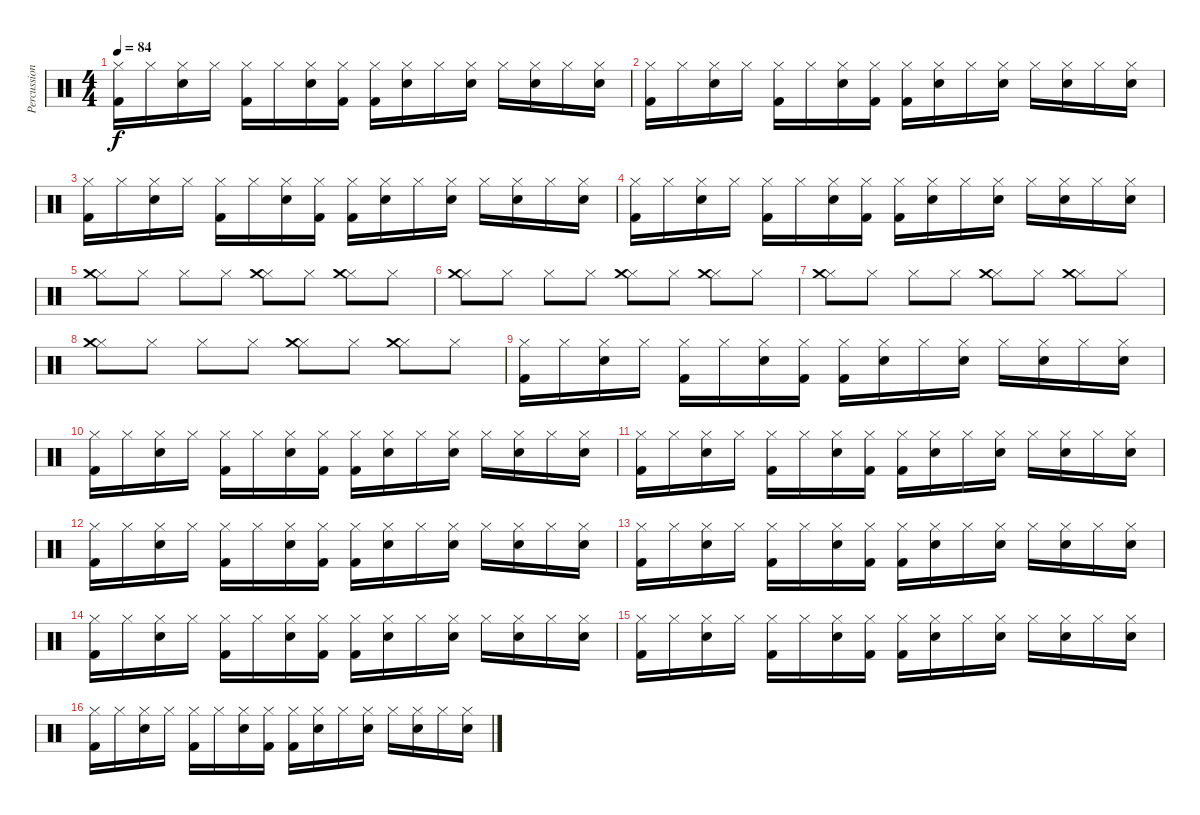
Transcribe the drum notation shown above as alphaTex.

\track ("Percussion" "Percussion") {instrument percussion}
\staff {score}
\articulation defaults
\ts (4 4)
\tempo 84
\clef neutral
\ks c
("Hi-Hat (closed)" "Kick (hit) 2").16{dy f} "Hi-Hat (closed)".16 ("Hi-Hat (closed)" "Snare (hit) 2").16 "Hi-Hat (closed)".16 ("Hi-Hat (closed)" "Kick (hit) 2").16 "Hi-Hat (closed)".16 ("Hi-Hat (closed)" "Snare (hit) 2").16 ("Hi-Hat (closed)" "Kick (hit) 2").16 ("Hi-Hat (closed)" "Kick (hit) 2").16 ("Hi-Hat (closed)" "Snare (hit) 2").16 "Hi-Hat (closed)".16 ("Hi-Hat (closed)" "Snare (hit) 2").16 "Hi-Hat (closed)".16 ("Hi-Hat (closed)" "Snare (hit) 2").16 "Hi-Hat (closed)".16 ("Hi-Hat (closed)" "Snare (hit) 2").16 |
("Hi-Hat (closed)" "Kick (hit) 2").16 "Hi-Hat (closed)".16 ("Hi-Hat (closed)" "Snare (hit) 2").16 "Hi-Hat (closed)".16 ("Hi-Hat (closed)" "Kick (hit) 2").16 "Hi-Hat (closed)".16 ("Hi-Hat (closed)" "Snare (hit) 2").16 ("Hi-Hat (closed)" "Kick (hit) 2").16 ("Hi-Hat (closed)" "Kick (hit) 2").16 ("Hi-Hat (closed)" "Snare (hit) 2").16 "Hi-Hat (closed)".16 ("Hi-Hat (closed)" "Snare (hit) 2").16 "Hi-Hat (closed)".16 ("Hi-Hat (closed)" "Snare (hit) 2").16 "Hi-Hat (closed)".16 ("Hi-Hat (closed)" "Snare (hit) 2").16 |
("Hi-Hat (closed)" "Kick (hit) 2").16 "Hi-Hat (closed)".16 ("Hi-Hat (closed)" "Snare (hit) 2").16 "Hi-Hat (closed)".16 ("Hi-Hat (closed)" "Kick (hit) 2").16 "Hi-Hat (closed)".16 ("Hi-Hat (closed)" "Snare (hit) 2").16 ("Hi-Hat (closed)" "Kick (hit) 2").16 ("Hi-Hat (closed)" "Kick (hit) 2").16 ("Hi-Hat (closed)" "Snare (hit) 2").16 "Hi-Hat (closed)".16 ("Hi-Hat (closed)" "Snare (hit) 2").16 "Hi-Hat (closed)".16 ("Hi-Hat (closed)" "Snare (hit) 2").16 "Hi-Hat (closed)".16 ("Hi-Hat (closed)" "Snare (hit) 2").16 |
("Hi-Hat (closed)" "Kick (hit) 2").16 "Hi-Hat (closed)".16 ("Hi-Hat (closed)" "Snare (hit) 2").16 "Hi-Hat (closed)".16 ("Hi-Hat (closed)" "Kick (hit) 2").16 "Hi-Hat (closed)".16 ("Hi-Hat (closed)" "Snare (hit) 2").16 ("Hi-Hat (closed)" "Kick (hit) 2").16 ("Hi-Hat (closed)" "Kick (hit) 2").16 ("Hi-Hat (closed)" "Snare (hit) 2").16 "Hi-Hat (closed)".16 ("Hi-Hat (closed)" "Snare (hit) 2").16 "Hi-Hat (closed)".16 ("Hi-Hat (closed)" "Snare (hit) 2").16 "Hi-Hat (closed)".16 ("Hi-Hat (closed)" "Snare (hit) 2").16 |
("Hi-Hat (closed)" "Crash medium (hit)").8 "Hi-Hat (closed)".8 "Hi-Hat (closed)".8 "Hi-Hat (closed)".8 ("Hi-Hat (closed)" "Crash medium (hit)").8 "Hi-Hat (closed)".8 ("Hi-Hat (closed)" "Crash medium (hit)").8 "Hi-Hat (closed)".8 |
("Hi-Hat (closed)" "Crash medium (hit)").8 "Hi-Hat (closed)".8 "Hi-Hat (closed)".8 "Hi-Hat (closed)".8 ("Hi-Hat (closed)" "Crash medium (hit)").8 "Hi-Hat (closed)".8 ("Hi-Hat (closed)" "Crash medium (hit)").8 "Hi-Hat (closed)".8 |
("Hi-Hat (closed)" "Crash medium (hit)").8 "Hi-Hat (closed)".8 "Hi-Hat (closed)".8 "Hi-Hat (closed)".8 ("Hi-Hat (closed)" "Crash medium (hit)").8 "Hi-Hat (closed)".8 ("Hi-Hat (closed)" "Crash medium (hit)").8 "Hi-Hat (closed)".8 |
("Hi-Hat (closed)" "Crash medium (hit)").8 "Hi-Hat (closed)".8 "Hi-Hat (closed)".8 "Hi-Hat (closed)".8 ("Hi-Hat (closed)" "Crash medium (hit)").8 "Hi-Hat (closed)".8 ("Hi-Hat (closed)" "Crash medium (hit)").8 "Hi-Hat (closed)".8 |
("Hi-Hat (closed)" "Kick (hit) 2").16 "Hi-Hat (closed)".16 ("Hi-Hat (closed)" "Snare (hit) 2").16 "Hi-Hat (closed)".16 ("Hi-Hat (closed)" "Kick (hit) 2").16 "Hi-Hat (closed)".16 ("Hi-Hat (closed)" "Snare (hit) 2").16 ("Hi-Hat (closed)" "Kick (hit) 2").16 ("Hi-Hat (closed)" "Kick (hit) 2").16 ("Hi-Hat (closed)" "Snare (hit) 2").16 "Hi-Hat (closed)".16 ("Hi-Hat (closed)" "Snare (hit) 2").16 "Hi-Hat (closed)".16 ("Hi-Hat (closed)" "Snare (hit) 2").16 "Hi-Hat (closed)".16 ("Hi-Hat (closed)" "Snare (hit) 2").16 |
("Hi-Hat (closed)" "Kick (hit) 2").16 "Hi-Hat (closed)".16 ("Hi-Hat (closed)" "Snare (hit) 2").16 "Hi-Hat (closed)".16 ("Hi-Hat (closed)" "Kick (hit) 2").16 "Hi-Hat (closed)".16 ("Hi-Hat (closed)" "Snare (hit) 2").16 ("Hi-Hat (closed)" "Kick (hit) 2").16 ("Hi-Hat (closed)" "Kick (hit) 2").16 ("Hi-Hat (closed)" "Snare (hit) 2").16 "Hi-Hat (closed)".16 ("Hi-Hat (closed)" "Snare (hit) 2").16 "Hi-Hat (closed)".16 ("Hi-Hat (closed)" "Snare (hit) 2").16 "Hi-Hat (closed)".16 ("Hi-Hat (closed)" "Snare (hit) 2").16 |
("Hi-Hat (closed)" "Kick (hit) 2").16 "Hi-Hat (closed)".16 ("Hi-Hat (closed)" "Snare (hit) 2").16 "Hi-Hat (closed)".16 ("Hi-Hat (closed)" "Kick (hit) 2").16 "Hi-Hat (closed)".16 ("Hi-Hat (closed)" "Snare (hit) 2").16 ("Hi-Hat (closed)" "Kick (hit) 2").16 ("Hi-Hat (closed)" "Kick (hit) 2").16 ("Hi-Hat (closed)" "Snare (hit) 2").16 "Hi-Hat (closed)".16 ("Hi-Hat (closed)" "Snare (hit) 2").16 "Hi-Hat (closed)".16 ("Hi-Hat (closed)" "Snare (hit) 2").16 "Hi-Hat (closed)".16 ("Hi-Hat (closed)" "Snare (hit) 2").16 |
("Hi-Hat (closed)" "Kick (hit) 2").16 "Hi-Hat (closed)".16 ("Hi-Hat (closed)" "Snare (hit) 2").16 "Hi-Hat (closed)".16 ("Hi-Hat (closed)" "Kick (hit) 2").16 "Hi-Hat (closed)".16 ("Hi-Hat (closed)" "Snare (hit) 2").16 ("Hi-Hat (closed)" "Kick (hit) 2").16 ("Hi-Hat (closed)" "Kick (hit) 2").16 ("Hi-Hat (closed)" "Snare (hit) 2").16 "Hi-Hat (closed)".16 ("Hi-Hat (closed)" "Snare (hit) 2").16 "Hi-Hat (closed)".16 ("Hi-Hat (closed)" "Snare (hit) 2").16 "Hi-Hat (closed)".16 ("Hi-Hat (closed)" "Snare (hit) 2").16 |
("Hi-Hat (closed)" "Kick (hit) 2").16 "Hi-Hat (closed)".16 ("Hi-Hat (closed)" "Snare (hit) 2").16 "Hi-Hat (closed)".16 ("Hi-Hat (closed)" "Kick (hit) 2").16 "Hi-Hat (closed)".16 ("Hi-Hat (closed)" "Snare (hit) 2").16 ("Hi-Hat (closed)" "Kick (hit) 2").16 ("Hi-Hat (closed)" "Kick (hit) 2").16 ("Hi-Hat (closed)" "Snare (hit) 2").16 "Hi-Hat (closed)".16 ("Hi-Hat (closed)" "Snare (hit) 2").16 "Hi-Hat (closed)".16 ("Hi-Hat (closed)" "Snare (hit) 2").16 "Hi-Hat (closed)".16 ("Hi-Hat (closed)" "Snare (hit) 2").16 |
("Hi-Hat (closed)" "Kick (hit) 2").16 "Hi-Hat (closed)".16 ("Hi-Hat (closed)" "Snare (hit) 2").16 "Hi-Hat (closed)".16 ("Hi-Hat (closed)" "Kick (hit) 2").16 "Hi-Hat (closed)".16 ("Hi-Hat (closed)" "Snare (hit) 2").16 ("Hi-Hat (closed)" "Kick (hit) 2").16 ("Hi-Hat (closed)" "Kick (hit) 2").16 ("Hi-Hat (closed)" "Snare (hit) 2").16 "Hi-Hat (closed)".16 ("Hi-Hat (closed)" "Snare (hit) 2").16 "Hi-Hat (closed)".16 ("Hi-Hat (closed)" "Snare (hit) 2").16 "Hi-Hat (closed)".16 ("Hi-Hat (closed)" "Snare (hit) 2").16 |
("Hi-Hat (closed)" "Kick (hit) 2").16 "Hi-Hat (closed)".16 ("Hi-Hat (closed)" "Snare (hit) 2").16 "Hi-Hat (closed)".16 ("Hi-Hat (closed)" "Kick (hit) 2").16 "Hi-Hat (closed)".16 ("Hi-Hat (closed)" "Snare (hit) 2").16 ("Hi-Hat (closed)" "Kick (hit) 2").16 ("Hi-Hat (closed)" "Kick (hit) 2").16 ("Hi-Hat (closed)" "Snare (hit) 2").16 "Hi-Hat (closed)".16 ("Hi-Hat (closed)" "Snare (hit) 2").16 "Hi-Hat (closed)".16 ("Hi-Hat (closed)" "Snare (hit) 2").16 "Hi-Hat (closed)".16 ("Hi-Hat (closed)" "Snare (hit) 2").16 |
("Hi-Hat (closed)" "Kick (hit) 2").16 "Hi-Hat (closed)".16 ("Hi-Hat (closed)" "Snare (hit) 2").16 "Hi-Hat (closed)".16 ("Hi-Hat (closed)" "Kick (hit) 2").16 "Hi-Hat (closed)".16 ("Hi-Hat (closed)" "Snare (hit) 2").16 ("Hi-Hat (closed)" "Kick (hit) 2").16 ("Hi-Hat (closed)" "Kick (hit) 2").16 ("Hi-Hat (closed)" "Snare (hit) 2").16 "Hi-Hat (closed)".16 ("Hi-Hat (closed)" "Snare (hit) 2").16 "Hi-Hat (closed)".16 ("Hi-Hat (closed)" "Snare (hit) 2").16 "Hi-Hat (closed)".16 ("Hi-Hat (closed)" "Snare (hit) 2").16
